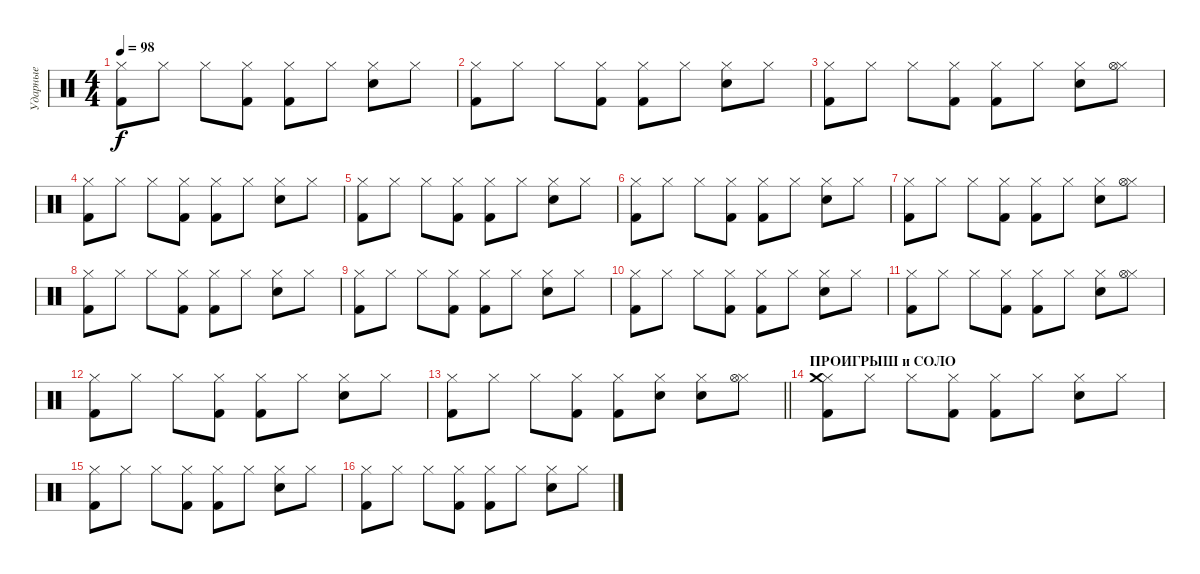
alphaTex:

\track ("Ударные" "Ударные") {instrument percussion}
\staff {score}
\articulation defaults
\ts (4 4)
\tempo 98
\clef neutral
\ks c
("Hi-Hat (closed)" "Kick (hit) 2").8{dy f} "Hi-Hat (closed)".8 "Hi-Hat (closed)".8 ("Hi-Hat (closed)" "Kick (hit) 2").8 ("Hi-Hat (closed)" "Kick (hit) 2").8 "Hi-Hat (closed)".8 ("Hi-Hat (closed)" "Snare (hit) 2").8 "Hi-Hat (closed)".8 |
("Hi-Hat (closed)" "Kick (hit) 2").8 "Hi-Hat (closed)".8 "Hi-Hat (closed)".8 ("Hi-Hat (closed)" "Kick (hit) 2").8 ("Hi-Hat (closed)" "Kick (hit) 2").8 "Hi-Hat (closed)".8 ("Hi-Hat (closed)" "Snare (hit) 2").8 "Hi-Hat (closed)".8 |
("Hi-Hat (closed)" "Kick (hit) 2").8 "Hi-Hat (closed)".8 "Hi-Hat (closed)".8 ("Hi-Hat (closed)" "Kick (hit) 2").8 ("Hi-Hat (closed)" "Kick (hit) 2").8 "Hi-Hat (closed)".8 ("Hi-Hat (closed)" "Snare (hit) 2").8 ("Hi-Hat (closed)" "Hi-Hat (open)").8 |
("Hi-Hat (closed)" "Kick (hit) 2").8 "Hi-Hat (closed)".8 "Hi-Hat (closed)".8 ("Hi-Hat (closed)" "Kick (hit) 2").8 ("Hi-Hat (closed)" "Kick (hit) 2").8 "Hi-Hat (closed)".8 ("Hi-Hat (closed)" "Snare (hit) 2").8 "Hi-Hat (closed)".8 |
("Hi-Hat (closed)" "Kick (hit) 2").8 "Hi-Hat (closed)".8 "Hi-Hat (closed)".8 ("Hi-Hat (closed)" "Kick (hit) 2").8 ("Hi-Hat (closed)" "Kick (hit) 2").8 "Hi-Hat (closed)".8 ("Hi-Hat (closed)" "Snare (hit) 2").8 "Hi-Hat (closed)".8 |
("Hi-Hat (closed)" "Kick (hit) 2").8 "Hi-Hat (closed)".8 "Hi-Hat (closed)".8 ("Hi-Hat (closed)" "Kick (hit) 2").8 ("Hi-Hat (closed)" "Kick (hit) 2").8 "Hi-Hat (closed)".8 ("Hi-Hat (closed)" "Snare (hit) 2").8 "Hi-Hat (closed)".8 |
("Hi-Hat (closed)" "Kick (hit) 2").8 "Hi-Hat (closed)".8 "Hi-Hat (closed)".8 ("Hi-Hat (closed)" "Kick (hit) 2").8 ("Hi-Hat (closed)" "Kick (hit) 2").8 "Hi-Hat (closed)".8 ("Hi-Hat (closed)" "Snare (hit) 2").8 ("Hi-Hat (closed)" "Hi-Hat (open)").8 |
("Hi-Hat (closed)" "Kick (hit) 2").8 "Hi-Hat (closed)".8 "Hi-Hat (closed)".8 ("Hi-Hat (closed)" "Kick (hit) 2").8 ("Hi-Hat (closed)" "Kick (hit) 2").8 "Hi-Hat (closed)".8 ("Hi-Hat (closed)" "Snare (hit) 2").8 "Hi-Hat (closed)".8 |
("Hi-Hat (closed)" "Kick (hit) 2").8 "Hi-Hat (closed)".8 "Hi-Hat (closed)".8 ("Hi-Hat (closed)" "Kick (hit) 2").8 ("Hi-Hat (closed)" "Kick (hit) 2").8 "Hi-Hat (closed)".8 ("Hi-Hat (closed)" "Snare (hit) 2").8 "Hi-Hat (closed)".8 |
("Hi-Hat (closed)" "Kick (hit) 2").8 "Hi-Hat (closed)".8 "Hi-Hat (closed)".8 ("Hi-Hat (closed)" "Kick (hit) 2").8 ("Hi-Hat (closed)" "Kick (hit) 2").8 "Hi-Hat (closed)".8 ("Hi-Hat (closed)" "Snare (hit) 2").8 "Hi-Hat (closed)".8 |
("Hi-Hat (closed)" "Kick (hit) 2").8 "Hi-Hat (closed)".8 "Hi-Hat (closed)".8 ("Hi-Hat (closed)" "Kick (hit) 2").8 ("Hi-Hat (closed)" "Kick (hit) 2").8 "Hi-Hat (closed)".8 ("Hi-Hat (closed)" "Snare (hit) 2").8 ("Hi-Hat (closed)" "Hi-Hat (open)").8 |
("Hi-Hat (closed)" "Kick (hit) 2").8 "Hi-Hat (closed)".8 "Hi-Hat (closed)".8 ("Hi-Hat (closed)" "Kick (hit) 2").8 ("Hi-Hat (closed)" "Kick (hit) 2").8 "Hi-Hat (closed)".8 ("Hi-Hat (closed)" "Snare (hit) 2").8 "Hi-Hat (closed)".8 |
\barLineRight lightlight
("Hi-Hat (closed)" "Kick (hit) 2").8 "Hi-Hat (closed)".8 "Hi-Hat (closed)".8 ("Hi-Hat (closed)" "Kick (hit) 2").8 ("Hi-Hat (closed)" "Kick (hit) 2").8 ("Hi-Hat (closed)" "Snare (hit) 2").8 ("Hi-Hat (closed)" "Snare (hit) 2").8 ("Hi-Hat (closed)" "Hi-Hat (open)").8 |
\section ("" "ПРОИГРЫШ и СОЛО")
("Hi-Hat (closed)" "Kick (hit) 2" "Crash medium (hit)").8 "Hi-Hat (closed)".8 "Hi-Hat (closed)".8 ("Hi-Hat (closed)" "Kick (hit) 2").8 ("Hi-Hat (closed)" "Kick (hit) 2").8 "Hi-Hat (closed)".8 ("Hi-Hat (closed)" "Snare (hit) 2").8 "Hi-Hat (closed)".8 |
("Hi-Hat (closed)" "Kick (hit) 2").8 "Hi-Hat (closed)".8 "Hi-Hat (closed)".8 ("Hi-Hat (closed)" "Kick (hit) 2").8 ("Hi-Hat (closed)" "Kick (hit) 2").8 "Hi-Hat (closed)".8 ("Hi-Hat (closed)" "Snare (hit) 2").8 "Hi-Hat (closed)".8 |
("Hi-Hat (closed)" "Kick (hit) 2").8 "Hi-Hat (closed)".8 "Hi-Hat (closed)".8 ("Hi-Hat (closed)" "Kick (hit) 2").8 ("Hi-Hat (closed)" "Kick (hit) 2").8 "Hi-Hat (closed)".8 ("Hi-Hat (closed)" "Snare (hit) 2").8 "Hi-Hat (closed)".8
